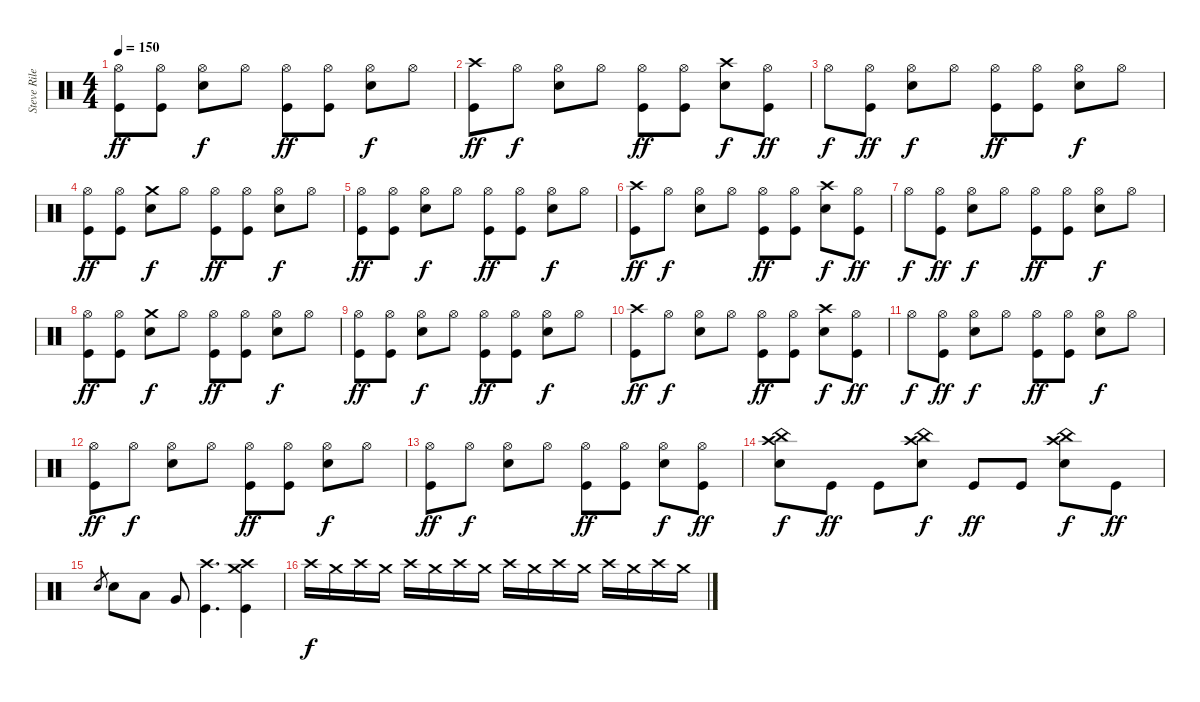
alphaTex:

\track ("Steve Riley" "Steve Rile") {instrument percussion}
\staff {score}
\articulation defaults
\ts (4 4)
\tempo 150
\clef neutral
\ks c
("Hi-Hat (open)" "Kick (hit)").8{dy ff} ("Hi-Hat (open)" "Kick (hit)").8 ("Hi-Hat (open)" "Snare (hit) 2").8{dy f} "Hi-Hat (open)".8 ("Hi-Hat (open)" "Kick (hit)").8{dy ff} ("Hi-Hat (open)" "Kick (hit)").8 ("Hi-Hat (open)" "Snare (hit) 2").8{dy f} "Hi-Hat (open)".8 |
("Crash high (hit)" "Kick (hit)").8{dy ff} "Hi-Hat (open)".8{dy f} ("Hi-Hat (open)" "Snare (hit) 2").8 "Hi-Hat (open)".8 ("Hi-Hat (open)" "Kick (hit)").8{dy ff} ("Hi-Hat (open)" "Kick (hit)").8 ("Crash high (hit)" "Snare (hit) 2").8{dy f} ("Hi-Hat (open)" "Kick (hit)").8{dy ff} |
"Hi-Hat (open)".8{dy f} ("Hi-Hat (open)" "Kick (hit)").8{dy ff} ("Hi-Hat (open)" "Snare (hit) 2").8{dy f} "Hi-Hat (open)".8 ("Hi-Hat (open)" "Kick (hit)").8{dy ff} ("Hi-Hat (open)" "Kick (hit)").8 ("Hi-Hat (open)" "Snare (hit) 2").8{dy f} "Hi-Hat (open)".8 |
("Hi-Hat (open)" "Kick (hit)").8{dy ff} ("Hi-Hat (open)" "Kick (hit)").8 ("Crash medium (hit)" "Snare (hit) 2").8{dy f} "Hi-Hat (open)".8 ("Hi-Hat (open)" "Kick (hit)").8{dy ff} ("Hi-Hat (open)" "Kick (hit)").8 ("Hi-Hat (open)" "Snare (hit) 2").8{dy f} "Hi-Hat (open)".8 |
("Hi-Hat (open)" "Kick (hit)").8{dy ff} ("Hi-Hat (open)" "Kick (hit)").8 ("Hi-Hat (open)" "Snare (hit) 2").8{dy f} "Hi-Hat (open)".8 ("Hi-Hat (open)" "Kick (hit)").8{dy ff} ("Hi-Hat (open)" "Kick (hit)").8 ("Hi-Hat (open)" "Snare (hit) 2").8{dy f} "Hi-Hat (open)".8 |
("Crash high (hit)" "Kick (hit)").8{dy ff} "Hi-Hat (open)".8{dy f} ("Hi-Hat (open)" "Snare (hit) 2").8 "Hi-Hat (open)".8 ("Hi-Hat (open)" "Kick (hit)").8{dy ff} ("Hi-Hat (open)" "Kick (hit)").8 ("Crash high (hit)" "Snare (hit) 2").8{dy f} ("Hi-Hat (open)" "Kick (hit)").8{dy ff} |
"Hi-Hat (open)".8{dy f} ("Hi-Hat (open)" "Kick (hit)").8{dy ff} ("Hi-Hat (open)" "Snare (hit) 2").8{dy f} "Hi-Hat (open)".8 ("Hi-Hat (open)" "Kick (hit)").8{dy ff} ("Hi-Hat (open)" "Kick (hit)").8 ("Hi-Hat (open)" "Snare (hit) 2").8{dy f} "Hi-Hat (open)".8 |
("Hi-Hat (open)" "Kick (hit)").8{dy ff} ("Hi-Hat (open)" "Kick (hit)").8 ("Crash medium (hit)" "Snare (hit) 2").8{dy f} "Hi-Hat (open)".8 ("Hi-Hat (open)" "Kick (hit)").8{dy ff} ("Hi-Hat (open)" "Kick (hit)").8 ("Hi-Hat (open)" "Snare (hit) 2").8{dy f} "Hi-Hat (open)".8 |
("Hi-Hat (open)" "Kick (hit)").8{dy ff} ("Hi-Hat (open)" "Kick (hit)").8 ("Hi-Hat (open)" "Snare (hit) 2").8{dy f} "Hi-Hat (open)".8 ("Hi-Hat (open)" "Kick (hit)").8{dy ff} ("Hi-Hat (open)" "Kick (hit)").8 ("Hi-Hat (open)" "Snare (hit) 2").8{dy f} "Hi-Hat (open)".8 |
("Crash high (hit)" "Kick (hit)").8{dy ff} "Hi-Hat (open)".8{dy f} ("Hi-Hat (open)" "Snare (hit) 2").8 "Hi-Hat (open)".8 ("Hi-Hat (open)" "Kick (hit)").8{dy ff} ("Hi-Hat (open)" "Kick (hit)").8 ("Crash high (hit)" "Snare (hit) 2").8{dy f} ("Hi-Hat (open)" "Kick (hit)").8{dy ff} |
"Hi-Hat (open)".8{dy f} ("Hi-Hat (open)" "Kick (hit)").8{dy ff} ("Hi-Hat (open)" "Snare (hit) 2").8{dy f} "Hi-Hat (open)".8 ("Hi-Hat (open)" "Kick (hit)").8{dy ff} ("Hi-Hat (open)" "Kick (hit)").8 ("Hi-Hat (open)" "Snare (hit) 2").8{dy f} "Hi-Hat (open)".8 |
("Hi-Hat (open)" "Kick (hit)").8{dy ff} "Hi-Hat (open)".8{dy f} ("Hi-Hat (open)" "Snare (hit) 2").8 "Hi-Hat (open)".8 ("Hi-Hat (open)" "Kick (hit)").8{dy ff} ("Hi-Hat (open)" "Kick (hit)").8 ("Hi-Hat (open)" "Snare (hit) 2").8{dy f} "Hi-Hat (open)".8 |
("Hi-Hat (open)" "Kick (hit)").8{dy ff} "Hi-Hat (open)".8{dy f} ("Hi-Hat (open)" "Snare (hit) 2").8 "Hi-Hat (open)".8 ("Hi-Hat (open)" "Kick (hit)").8{dy ff} ("Hi-Hat (open)" "Kick (hit)").8 ("Hi-Hat (open)" "Snare (hit) 2").8{dy f} ("Hi-Hat (open)" "Kick (hit)").8{dy ff} |
("China (hit)" "Crash high (hit)" "Snare (hit) 2").8{dy f} "Kick (hit)".8{dy ff} "Kick (hit)".8 ("China (hit)" "Crash high (hit)" "Snare (hit) 2").8{dy f} "Kick (hit)".8{dy ff} "Kick (hit)".8 ("China (hit)" "Crash high (hit)" "Snare (hit) 2").8{dy f} "Kick (hit)".8{dy ff} |
"Snare (hit) 2".8{gr} "Snare (hit) 2".8 "Low Tom (hit)".8 "Very Low Tom (hit)".8 ("Crash high (hit)" "Kick (hit)").4{d} ("Crash high (hit)" "Crash medium (hit)" "Kick (hit)").4 |
"Crash high (hit)".16{dy f} "Crash medium (hit)".16 "Crash high (hit)".16 "Crash medium (hit)".16 "Crash high (hit)".16 "Crash medium (hit)".16 "Crash high (hit)".16 "Crash medium (hit)".16 "Crash high (hit)".16 "Crash medium (hit)".16 "Crash high (hit)".16 "Crash medium (hit)".16 "Crash high (hit)".16 "Crash medium (hit)".16 "Crash high (hit)".16 "Crash medium (hit)".16
